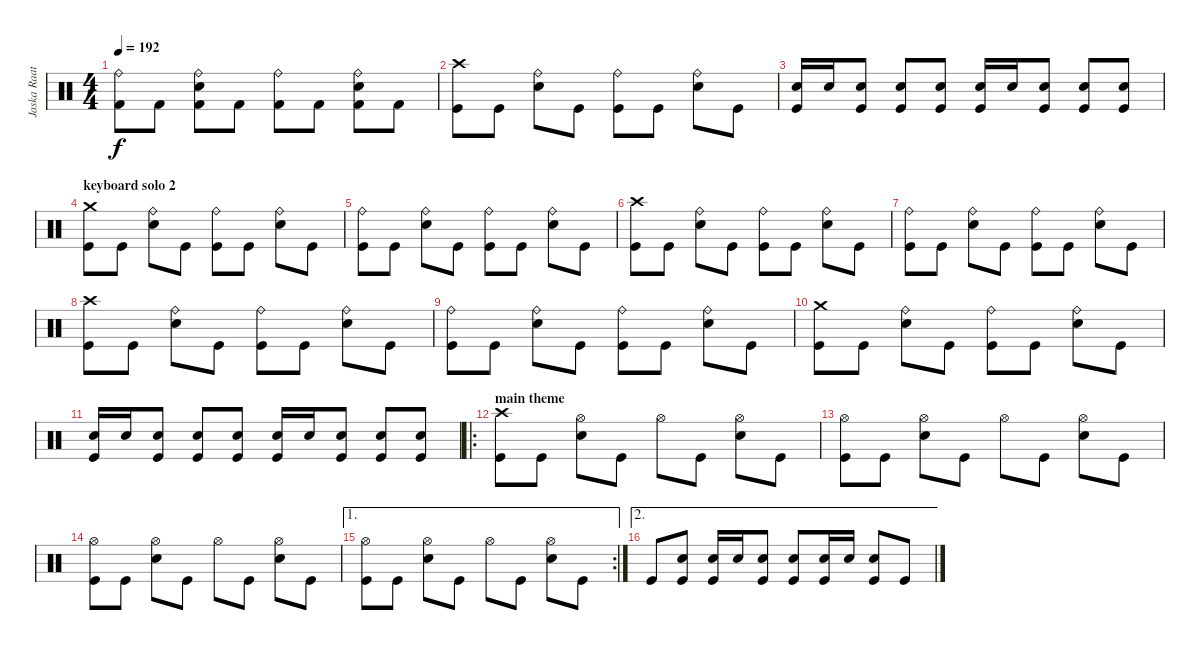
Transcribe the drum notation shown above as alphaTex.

\track ("Jaska Raatikainen" "Jaska Raat") {instrument percussion}
\staff {score}
\articulation defaults
\ts (4 4)
\tempo 192
\clef neutral
\ks c
("Ride (bell)" "Kick (hit) 2").8{dy f} "Kick (hit) 2".8 ("Ride (bell)" "Snare (hit) 2" "Kick (hit) 2").8 "Kick (hit) 2".8 ("Ride (bell)" "Kick (hit) 2").8 "Kick (hit) 2".8 ("Ride (bell)" "Snare (hit) 2" "Kick (hit) 2").8 "Kick (hit) 2".8 |
("Crash high (hit)" "Kick (hit)").8 "Kick (hit)".8 ("Ride (bell)" "Electric Snare (hit)").8 "Kick (hit)".8 ("Ride (bell)" "Kick (hit)").8 "Kick (hit)".8 ("Ride (bell)" "Electric Snare (hit)").8 "Kick (hit)".8 |
("Electric Snare (hit)" "Kick (hit)").16 "Electric Snare (hit)".16 ("Electric Snare (hit)" "Kick (hit)").8 ("Electric Snare (hit)" "Kick (hit)").8 ("Electric Snare (hit)" "Kick (hit)").8 ("Electric Snare (hit)" "Kick (hit)").16 "Electric Snare (hit)".16 ("Electric Snare (hit)" "Kick (hit)").8 ("Electric Snare (hit)" "Kick (hit)").8 ("Electric Snare (hit)" "Kick (hit)").8 |
\section ("" "keyboard solo 2")
("Crash medium (hit)" "Kick (hit)").8 "Kick (hit)".8 ("Ride (bell)" "Electric Snare (hit)").8 "Kick (hit)".8 ("Ride (bell)" "Kick (hit)").8 "Kick (hit)".8 ("Ride (bell)" "Electric Snare (hit)").8 "Kick (hit)".8 |
("Ride (bell)" "Kick (hit)").8 "Kick (hit)".8 ("Ride (bell)" "Electric Snare (hit)").8 "Kick (hit)".8 ("Ride (bell)" "Kick (hit)").8 "Kick (hit)".8 ("Ride (bell)" "Electric Snare (hit)").8 "Kick (hit)".8 |
("Crash high (hit)" "Kick (hit)").8 "Kick (hit)".8 ("Ride (bell)" "Electric Snare (hit)").8 "Kick (hit)".8 ("Ride (bell)" "Kick (hit)").8 "Kick (hit)".8 ("Ride (bell)" "Electric Snare (hit)").8 "Kick (hit)".8 |
("Ride (bell)" "Kick (hit)").8 "Kick (hit)".8 ("Ride (bell)" "Electric Snare (hit)").8 "Kick (hit)".8 ("Ride (bell)" "Kick (hit)").8 "Kick (hit)".8 ("Ride (bell)" "Electric Snare (hit)").8 "Kick (hit)".8 |
("Crash high (hit)" "Kick (hit)").8 "Kick (hit)".8 ("Ride (bell)" "Electric Snare (hit)").8 "Kick (hit)".8 ("Ride (bell)" "Kick (hit)").8 "Kick (hit)".8 ("Ride (bell)" "Electric Snare (hit)").8 "Kick (hit)".8 |
("Ride (bell)" "Kick (hit)").8 "Kick (hit)".8 ("Ride (bell)" "Electric Snare (hit)").8 "Kick (hit)".8 ("Ride (bell)" "Kick (hit)").8 "Kick (hit)".8 ("Ride (bell)" "Electric Snare (hit)").8 "Kick (hit)".8 |
("Crash medium (hit)" "Kick (hit)").8 "Kick (hit)".8 ("Ride (bell)" "Electric Snare (hit)").8 "Kick (hit)".8 ("Ride (bell)" "Kick (hit)").8 "Kick (hit)".8 ("Ride (bell)" "Electric Snare (hit)").8 "Kick (hit)".8 |
("Electric Snare (hit)" "Kick (hit)").16 "Electric Snare (hit)".16 ("Electric Snare (hit)" "Kick (hit)").8 ("Electric Snare (hit)" "Kick (hit)").8 ("Electric Snare (hit)" "Kick (hit)").8 ("Electric Snare (hit)" "Kick (hit)").16 "Electric Snare (hit)".16 ("Electric Snare (hit)" "Kick (hit)").8 ("Electric Snare (hit)" "Kick (hit)").8 ("Electric Snare (hit)" "Kick (hit)").8 |
\ro
\section ("" "main theme")
("Crash high (hit)" "Kick (hit)").8 "Kick (hit)".8 ("Hi-Hat (open)" "Electric Snare (hit)").8 "Kick (hit)".8 "Hi-Hat (open)".8 "Kick (hit)".8 ("Hi-Hat (open)" "Electric Snare (hit)").8 "Kick (hit)".8 |
("Hi-Hat (open)" "Kick (hit)").8 "Kick (hit)".8 ("Hi-Hat (open)" "Electric Snare (hit)").8 "Kick (hit)".8 "Hi-Hat (open)".8 "Kick (hit)".8 ("Hi-Hat (open)" "Electric Snare (hit)").8 "Kick (hit)".8 |
("Hi-Hat (open)" "Kick (hit)").8 "Kick (hit)".8 ("Hi-Hat (open)" "Electric Snare (hit)").8 "Kick (hit)".8 "Hi-Hat (open)".8 "Kick (hit)".8 ("Hi-Hat (open)" "Electric Snare (hit)").8 "Kick (hit)".8 |
\ae 1
\rc 2
("Hi-Hat (open)" "Kick (hit)").8 "Kick (hit)".8 ("Hi-Hat (open)" "Electric Snare (hit)").8 "Kick (hit)".8 "Hi-Hat (open)".8 "Kick (hit)".8 ("Hi-Hat (open)" "Electric Snare (hit)").8 "Kick (hit)".8 |
\ae 2 "Kick (hit)".8
("Electric Snare (hit)" "Kick (hit)").8 ("Electric Snare (hit)" "Kick (hit)").16 "Electric Snare (hit)".16 ("Electric Snare (hit)" "Kick (hit)").8 ("Electric Snare (hit)" "Kick (hit)").8 ("Electric Snare (hit)" "Kick (hit)").16 "Electric Snare (hit)".16 ("Electric Snare (hit)" "Kick (hit)").8 "Kick (hit)".8
